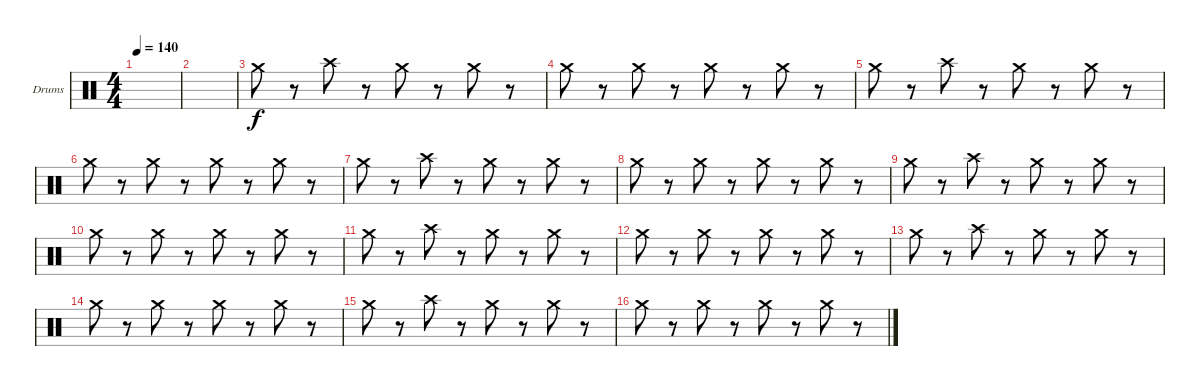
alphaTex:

\defaultSystemsLayout 4
\bracketExtendMode groupsimilarinstruments
\firstSystemTrackNameOrientation horizontal
\otherSystemsTrackNameOrientation horizontal
\track ("Drumkit" "Drums") {instrument percussion}
\staff {score}
\articulation defaults
\ts (4 4)
\tempo 140
\clef neutral
\ks c
|
|
"Crash medium (hit)".8 r.8 "Crash high (hit)".8 r.8 "Crash medium (hit)".8 r.8 "Crash medium (hit)".8 r.8 |
"Crash medium (hit)".8 r.8 "Crash medium (hit)".8 r.8 "Crash medium (hit)".8 r.8 "Crash medium (hit)".8 r.8 |
"Crash medium (hit)".8 r.8 "Crash high (hit)".8 r.8 "Crash medium (hit)".8 r.8 "Crash medium (hit)".8 r.8 |
"Crash medium (hit)".8 r.8 "Crash medium (hit)".8 r.8 "Crash medium (hit)".8 r.8 "Crash medium (hit)".8 r.8 |
"Crash medium (hit)".8 r.8 "Crash high (hit)".8 r.8 "Crash medium (hit)".8 r.8 "Crash medium (hit)".8 r.8 |
"Crash medium (hit)".8 r.8 "Crash medium (hit)".8 r.8 "Crash medium (hit)".8 r.8 "Crash medium (hit)".8 r.8 |
"Crash medium (hit)".8 r.8 "Crash high (hit)".8 r.8 "Crash medium (hit)".8 r.8 "Crash medium (hit)".8 r.8 |
"Crash medium (hit)".8 r.8 "Crash medium (hit)".8 r.8 "Crash medium (hit)".8 r.8 "Crash medium (hit)".8 r.8 |
"Crash medium (hit)".8 r.8 "Crash high (hit)".8 r.8 "Crash medium (hit)".8 r.8 "Crash medium (hit)".8 r.8 |
"Crash medium (hit)".8 r.8 "Crash medium (hit)".8 r.8 "Crash medium (hit)".8 r.8 "Crash medium (hit)".8 r.8 |
"Crash medium (hit)".8 r.8 "Crash high (hit)".8 r.8 "Crash medium (hit)".8 r.8 "Crash medium (hit)".8 r.8 |
"Crash medium (hit)".8 r.8 "Crash medium (hit)".8 r.8 "Crash medium (hit)".8 r.8 "Crash medium (hit)".8 r.8 |
"Crash medium (hit)".8 r.8 "Crash high (hit)".8 r.8 "Crash medium (hit)".8 r.8 "Crash medium (hit)".8 r.8 |
"Crash medium (hit)".8 r.8 "Crash medium (hit)".8 r.8 "Crash medium (hit)".8 r.8 "Crash medium (hit)".8 r.8
